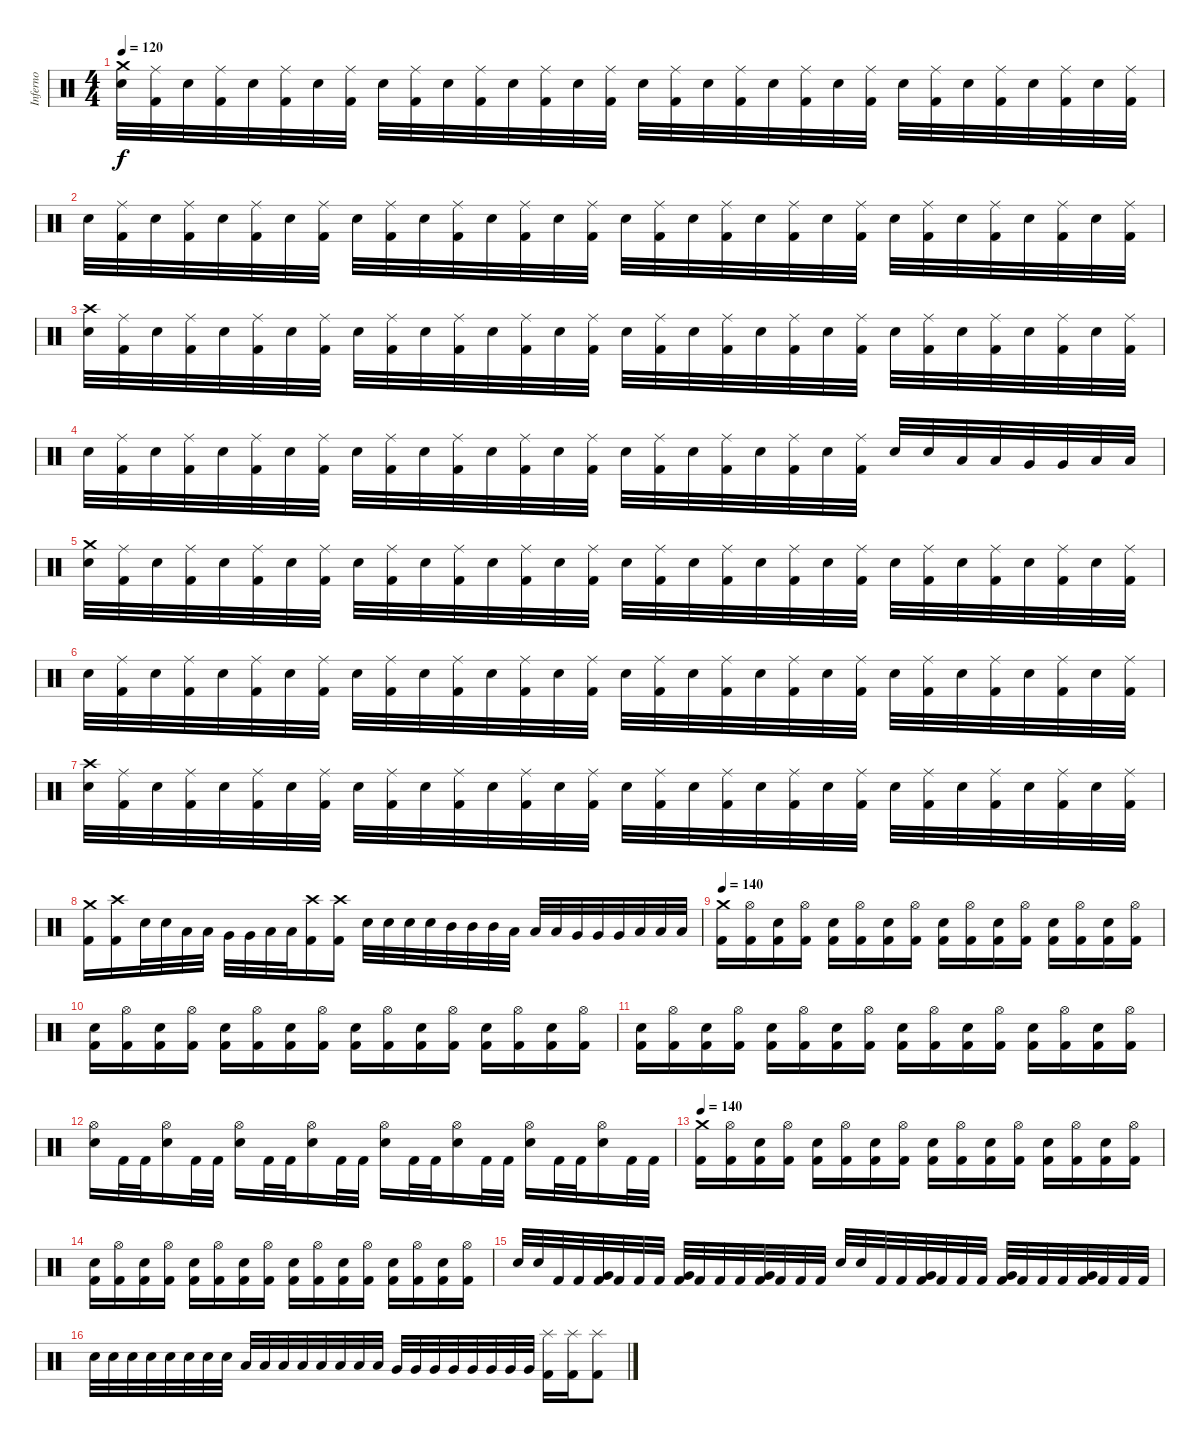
\track ("Inferno" "Inferno") {instrument percussion}
\staff {score}
\articulation defaults
\ts (4 4)
\tempo 120
\clef neutral
\ks c
("Crash medium (hit)" "Electric Snare (hit)").32{dy f} ("Ride (middle)" "Kick (hit) 2").32 "Electric Snare (hit)".32 ("Ride (middle)" "Kick (hit) 2").32 "Electric Snare (hit)".32 ("Ride (middle)" "Kick (hit) 2").32 "Electric Snare (hit)".32 ("Ride (middle)" "Kick (hit) 2").32 "Electric Snare (hit)".32 ("Ride (middle)" "Kick (hit) 2").32 "Electric Snare (hit)".32 ("Ride (middle)" "Kick (hit) 2").32 "Electric Snare (hit)".32 ("Ride (middle)" "Kick (hit) 2").32 "Electric Snare (hit)".32 ("Ride (middle)" "Kick (hit) 2").32 "Electric Snare (hit)".32 ("Ride (middle)" "Kick (hit) 2").32 "Electric Snare (hit)".32 ("Ride (middle)" "Kick (hit) 2").32 "Electric Snare (hit)".32 ("Ride (middle)" "Kick (hit) 2").32 "Electric Snare (hit)".32 ("Ride (middle)" "Kick (hit) 2").32 "Electric Snare (hit)".32 ("Ride (middle)" "Kick (hit) 2").32 "Electric Snare (hit)".32 ("Ride (middle)" "Kick (hit) 2").32 "Electric Snare (hit)".32 ("Ride (middle)" "Kick (hit) 2").32 "Electric Snare (hit)".32 ("Ride (middle)" "Kick (hit) 2").32 |
"Electric Snare (hit)".32 ("Ride (middle)" "Kick (hit) 2").32 "Electric Snare (hit)".32 ("Ride (middle)" "Kick (hit) 2").32 "Electric Snare (hit)".32 ("Ride (middle)" "Kick (hit) 2").32 "Electric Snare (hit)".32 ("Ride (middle)" "Kick (hit) 2").32 "Electric Snare (hit)".32 ("Ride (middle)" "Kick (hit) 2").32 "Electric Snare (hit)".32 ("Ride (middle)" "Kick (hit) 2").32 "Electric Snare (hit)".32 ("Ride (middle)" "Kick (hit) 2").32 "Electric Snare (hit)".32 ("Ride (middle)" "Kick (hit) 2").32 "Electric Snare (hit)".32 ("Ride (middle)" "Kick (hit) 2").32 "Electric Snare (hit)".32 ("Ride (middle)" "Kick (hit) 2").32 "Electric Snare (hit)".32 ("Ride (middle)" "Kick (hit) 2").32 "Electric Snare (hit)".32 ("Ride (middle)" "Kick (hit) 2").32 "Electric Snare (hit)".32 ("Ride (middle)" "Kick (hit) 2").32 "Electric Snare (hit)".32 ("Ride (middle)" "Kick (hit) 2").32 "Electric Snare (hit)".32 ("Ride (middle)" "Kick (hit) 2").32 "Electric Snare (hit)".32 ("Ride (middle)" "Kick (hit) 2").32 |
("Crash high (hit)" "Electric Snare (hit)").32 ("Ride (middle)" "Kick (hit) 2").32 "Electric Snare (hit)".32 ("Ride (middle)" "Kick (hit) 2").32 "Electric Snare (hit)".32 ("Ride (middle)" "Kick (hit) 2").32 "Electric Snare (hit)".32 ("Ride (middle)" "Kick (hit) 2").32 "Electric Snare (hit)".32 ("Ride (middle)" "Kick (hit) 2").32 "Electric Snare (hit)".32 ("Ride (middle)" "Kick (hit) 2").32 "Electric Snare (hit)".32 ("Ride (middle)" "Kick (hit) 2").32 "Electric Snare (hit)".32 ("Ride (middle)" "Kick (hit) 2").32 "Electric Snare (hit)".32 ("Ride (middle)" "Kick (hit) 2").32 "Electric Snare (hit)".32 ("Ride (middle)" "Kick (hit) 2").32 "Electric Snare (hit)".32 ("Ride (middle)" "Kick (hit) 2").32 "Electric Snare (hit)".32 ("Ride (middle)" "Kick (hit) 2").32 "Electric Snare (hit)".32 ("Ride (middle)" "Kick (hit) 2").32 "Electric Snare (hit)".32 ("Ride (middle)" "Kick (hit) 2").32 "Electric Snare (hit)".32 ("Ride (middle)" "Kick (hit) 2").32 "Electric Snare (hit)".32 ("Ride (middle)" "Kick (hit) 2").32 |
"Electric Snare (hit)".32 ("Ride (middle)" "Kick (hit) 2").32 "Electric Snare (hit)".32 ("Ride (middle)" "Kick (hit) 2").32 "Electric Snare (hit)".32 ("Ride (middle)" "Kick (hit) 2").32 "Electric Snare (hit)".32 ("Ride (middle)" "Kick (hit) 2").32 "Electric Snare (hit)".32 ("Ride (middle)" "Kick (hit) 2").32 "Electric Snare (hit)".32 ("Ride (middle)" "Kick (hit) 2").32 "Electric Snare (hit)".32 ("Ride (middle)" "Kick (hit) 2").32 "Electric Snare (hit)".32 ("Ride (middle)" "Kick (hit) 2").32 "Electric Snare (hit)".32 ("Ride (middle)" "Kick (hit) 2").32 "Electric Snare (hit)".32 ("Ride (middle)" "Kick (hit) 2").32 "Electric Snare (hit)".32 ("Ride (middle)" "Kick (hit) 2").32 "Electric Snare (hit)".32 ("Ride (middle)" "Kick (hit) 2").32 "Electric Snare (hit)".32 "Electric Snare (hit)".32 "Low Tom (hit)".32 "Low Tom (hit)".32 "Very Low Tom (hit)".32 "Very Low Tom (hit)".32 "Low Floor Tom (hit)".32 "Low Floor Tom (hit)".32 |
("Crash medium (hit)" "Electric Snare (hit)").32 ("Ride (middle)" "Kick (hit) 2").32 "Electric Snare (hit)".32 ("Ride (middle)" "Kick (hit) 2").32 "Electric Snare (hit)".32 ("Ride (middle)" "Kick (hit) 2").32 "Electric Snare (hit)".32 ("Ride (middle)" "Kick (hit) 2").32 "Electric Snare (hit)".32 ("Ride (middle)" "Kick (hit) 2").32 "Electric Snare (hit)".32 ("Ride (middle)" "Kick (hit) 2").32 "Electric Snare (hit)".32 ("Ride (middle)" "Kick (hit) 2").32 "Electric Snare (hit)".32 ("Ride (middle)" "Kick (hit) 2").32 "Electric Snare (hit)".32 ("Ride (middle)" "Kick (hit) 2").32 "Electric Snare (hit)".32 ("Ride (middle)" "Kick (hit) 2").32 "Electric Snare (hit)".32 ("Ride (middle)" "Kick (hit) 2").32 "Electric Snare (hit)".32 ("Ride (middle)" "Kick (hit) 2").32 "Electric Snare (hit)".32 ("Ride (middle)" "Kick (hit) 2").32 "Electric Snare (hit)".32 ("Ride (middle)" "Kick (hit) 2").32 "Electric Snare (hit)".32 ("Ride (middle)" "Kick (hit) 2").32 "Electric Snare (hit)".32 ("Ride (middle)" "Kick (hit) 2").32 |
"Electric Snare (hit)".32 ("Ride (middle)" "Kick (hit) 2").32 "Electric Snare (hit)".32 ("Ride (middle)" "Kick (hit) 2").32 "Electric Snare (hit)".32 ("Ride (middle)" "Kick (hit) 2").32 "Electric Snare (hit)".32 ("Ride (middle)" "Kick (hit) 2").32 "Electric Snare (hit)".32 ("Ride (middle)" "Kick (hit) 2").32 "Electric Snare (hit)".32 ("Ride (middle)" "Kick (hit) 2").32 "Electric Snare (hit)".32 ("Ride (middle)" "Kick (hit) 2").32 "Electric Snare (hit)".32 ("Ride (middle)" "Kick (hit) 2").32 "Electric Snare (hit)".32 ("Ride (middle)" "Kick (hit) 2").32 "Electric Snare (hit)".32 ("Ride (middle)" "Kick (hit) 2").32 "Electric Snare (hit)".32 ("Ride (middle)" "Kick (hit) 2").32 "Electric Snare (hit)".32 ("Ride (middle)" "Kick (hit) 2").32 "Electric Snare (hit)".32 ("Ride (middle)" "Kick (hit) 2").32 "Electric Snare (hit)".32 ("Ride (middle)" "Kick (hit) 2").32 "Electric Snare (hit)".32 ("Ride (middle)" "Kick (hit) 2").32 "Electric Snare (hit)".32 ("Ride (middle)" "Kick (hit) 2").32 |
("Crash high (hit)" "Electric Snare (hit)").32 ("Ride (middle)" "Kick (hit) 2").32 "Electric Snare (hit)".32 ("Ride (middle)" "Kick (hit) 2").32 "Electric Snare (hit)".32 ("Ride (middle)" "Kick (hit) 2").32 "Electric Snare (hit)".32 ("Ride (middle)" "Kick (hit) 2").32 "Electric Snare (hit)".32 ("Ride (middle)" "Kick (hit) 2").32 "Electric Snare (hit)".32 ("Ride (middle)" "Kick (hit) 2").32 "Electric Snare (hit)".32 ("Ride (middle)" "Kick (hit) 2").32 "Electric Snare (hit)".32 ("Ride (middle)" "Kick (hit) 2").32 "Electric Snare (hit)".32 ("Ride (middle)" "Kick (hit) 2").32 "Electric Snare (hit)".32 ("Ride (middle)" "Kick (hit) 2").32 "Electric Snare (hit)".32 ("Ride (middle)" "Kick (hit) 2").32 "Electric Snare (hit)".32 ("Ride (middle)" "Kick (hit) 2").32 "Electric Snare (hit)".32 ("Ride (middle)" "Kick (hit) 2").32 "Electric Snare (hit)".32 ("Ride (middle)" "Kick (hit) 2").32 "Electric Snare (hit)".32 ("Ride (middle)" "Kick (hit) 2").32 "Electric Snare (hit)".32 ("Ride (middle)" "Kick (hit) 2").32 |
("Crash medium (hit)" "Kick (hit) 2").16 ("Crash high (hit)" "Kick (hit) 2").16 "Electric Snare (hit)".32 "Electric Snare (hit)".32 "Low Tom (hit)".32 "Low Tom (hit)".32 "Very Low Tom (hit)".32 "Very Low Tom (hit)".32 "Low Floor Tom (hit)".32 "Low Floor Tom (hit)".32 ("Crash high (hit)" "Kick (hit) 2").16 ("Crash high (hit)" "Kick (hit) 2").16 "Electric Snare (hit)".32 "Electric Snare (hit)".32 "Electric Snare (hit)".32 "Electric Snare (hit)".32 "Mid Tom (hit)".32 "Mid Tom (hit)".32 "Mid Tom (hit)".32 "Low Tom (hit)".32 "Low Tom (hit)".32 "Low Tom (hit)".32 "Very Low Tom (hit)".32 "Very Low Tom (hit)".32 "Very Low Tom (hit)".32 "Low Floor Tom (hit)".32 "Low Floor Tom (hit)".32 "Low Floor Tom (hit)".32 |
\tempo 140
("Crash medium (hit)" "Kick (hit) 2").16 ("Hi-Hat (open)" "Kick (hit) 2").16 ("Electric Snare (hit)" "Kick (hit) 2").16 ("Hi-Hat (open)" "Kick (hit) 2").16 ("Electric Snare (hit)" "Kick (hit) 2").16 ("Hi-Hat (open)" "Kick (hit) 2").16 ("Electric Snare (hit)" "Kick (hit) 2").16 ("Hi-Hat (open)" "Kick (hit) 2").16 ("Electric Snare (hit)" "Kick (hit) 2").16 ("Hi-Hat (open)" "Kick (hit) 2").16 ("Electric Snare (hit)" "Kick (hit) 2").16 ("Hi-Hat (open)" "Kick (hit) 2").16 ("Electric Snare (hit)" "Kick (hit) 2").16 ("Hi-Hat (open)" "Kick (hit) 2").16 ("Electric Snare (hit)" "Kick (hit) 2").16 ("Hi-Hat (open)" "Kick (hit) 2").16 |
("Electric Snare (hit)" "Kick (hit) 2").16 ("Hi-Hat (open)" "Kick (hit) 2").16 ("Electric Snare (hit)" "Kick (hit) 2").16 ("Hi-Hat (open)" "Kick (hit) 2").16 ("Electric Snare (hit)" "Kick (hit) 2").16 ("Hi-Hat (open)" "Kick (hit) 2").16 ("Electric Snare (hit)" "Kick (hit) 2").16 ("Hi-Hat (open)" "Kick (hit) 2").16 ("Electric Snare (hit)" "Kick (hit) 2").16 ("Hi-Hat (open)" "Kick (hit) 2").16 ("Electric Snare (hit)" "Kick (hit) 2").16 ("Hi-Hat (open)" "Kick (hit) 2").16 ("Electric Snare (hit)" "Kick (hit) 2").16 ("Hi-Hat (open)" "Kick (hit) 2").16 ("Electric Snare (hit)" "Kick (hit) 2").16 ("Hi-Hat (open)" "Kick (hit) 2").16 |
("Electric Snare (hit)" "Kick (hit) 2").16 ("Hi-Hat (open)" "Kick (hit) 2").16 ("Electric Snare (hit)" "Kick (hit) 2").16 ("Hi-Hat (open)" "Kick (hit) 2").16 ("Electric Snare (hit)" "Kick (hit) 2").16 ("Hi-Hat (open)" "Kick (hit) 2").16 ("Electric Snare (hit)" "Kick (hit) 2").16 ("Hi-Hat (open)" "Kick (hit) 2").16 ("Electric Snare (hit)" "Kick (hit) 2").16 ("Hi-Hat (open)" "Kick (hit) 2").16 ("Electric Snare (hit)" "Kick (hit) 2").16 ("Hi-Hat (open)" "Kick (hit) 2").16 ("Electric Snare (hit)" "Kick (hit) 2").16 ("Hi-Hat (open)" "Kick (hit) 2").16 ("Electric Snare (hit)" "Kick (hit) 2").16 ("Hi-Hat (open)" "Kick (hit) 2").16 |
("Hi-Hat (open)" "Electric Snare (hit)").16 "Kick (hit) 2".32 "Kick (hit) 2".32 ("Hi-Hat (open)" "Electric Snare (hit)").16 "Kick (hit) 2".32 "Kick (hit) 2".32 ("Hi-Hat (open)" "Electric Snare (hit)").16 "Kick (hit) 2".32 "Kick (hit) 2".32 ("Hi-Hat (open)" "Electric Snare (hit)").16 "Kick (hit) 2".32 "Kick (hit) 2".32 ("Hi-Hat (open)" "Electric Snare (hit)").16 "Kick (hit) 2".32 "Kick (hit) 2".32 ("Hi-Hat (open)" "Electric Snare (hit)").16 "Kick (hit) 2".32 "Kick (hit) 2".32 ("Hi-Hat (open)" "Electric Snare (hit)").16 "Kick (hit) 2".32 "Kick (hit) 2".32 ("Hi-Hat (open)" "Electric Snare (hit)").16 "Kick (hit) 2".32 "Kick (hit) 2".32 |
\tempo 140
("Crash medium (hit)" "Kick (hit) 2").16 ("Hi-Hat (open)" "Kick (hit) 2").16 ("Electric Snare (hit)" "Kick (hit) 2").16 ("Hi-Hat (open)" "Kick (hit) 2").16 ("Electric Snare (hit)" "Kick (hit) 2").16 ("Hi-Hat (open)" "Kick (hit) 2").16 ("Electric Snare (hit)" "Kick (hit) 2").16 ("Hi-Hat (open)" "Kick (hit) 2").16 ("Electric Snare (hit)" "Kick (hit) 2").16 ("Hi-Hat (open)" "Kick (hit) 2").16 ("Electric Snare (hit)" "Kick (hit) 2").16 ("Hi-Hat (open)" "Kick (hit) 2").16 ("Electric Snare (hit)" "Kick (hit) 2").16 ("Hi-Hat (open)" "Kick (hit) 2").16 ("Electric Snare (hit)" "Kick (hit) 2").16 ("Hi-Hat (open)" "Kick (hit) 2").16 |
("Electric Snare (hit)" "Kick (hit) 2").16 ("Hi-Hat (open)" "Kick (hit) 2").16 ("Electric Snare (hit)" "Kick (hit) 2").16 ("Hi-Hat (open)" "Kick (hit) 2").16 ("Electric Snare (hit)" "Kick (hit) 2").16 ("Hi-Hat (open)" "Kick (hit) 2").16 ("Electric Snare (hit)" "Kick (hit) 2").16 ("Hi-Hat (open)" "Kick (hit) 2").16 ("Electric Snare (hit)" "Kick (hit) 2").16 ("Hi-Hat (open)" "Kick (hit) 2").16 ("Electric Snare (hit)" "Kick (hit) 2").16 ("Hi-Hat (open)" "Kick (hit) 2").16 ("Electric Snare (hit)" "Kick (hit) 2").16 ("Hi-Hat (open)" "Kick (hit) 2").16 ("Electric Snare (hit)" "Kick (hit) 2").16 ("Hi-Hat (open)" "Kick (hit) 2").16 |
"Electric Snare (hit)".32 "Electric Snare (hit)".32 "Kick (hit) 2".32 "Kick (hit) 2".32 ("Very Low Tom (hit)" "Kick (hit) 2").32 "Kick (hit) 2".32 "Kick (hit) 2".32 "Kick (hit) 2".32 ("Very Low Tom (hit)" "Kick (hit) 2").32 "Kick (hit) 2".32 "Kick (hit) 2".32 "Kick (hit) 2".32 ("Very Low Tom (hit)" "Kick (hit) 2").32 "Kick (hit) 2".32 "Kick (hit) 2".32 "Kick (hit) 2".32 "Electric Snare (hit)".32 "Electric Snare (hit)".32 "Kick (hit) 2".32 "Kick (hit) 2".32 ("Very Low Tom (hit)" "Kick (hit) 2").32 "Kick (hit) 2".32 "Kick (hit) 2".32 "Kick (hit) 2".32 ("Very Low Tom (hit)" "Kick (hit) 2").32 "Kick (hit) 2".32 "Kick (hit) 2".32 "Kick (hit) 2".32 ("Very Low Tom (hit)" "Kick (hit) 2").32 "Kick (hit) 2".32 "Kick (hit) 2".32 "Kick (hit) 2".32 |
"Electric Snare (hit)".32 "Electric Snare (hit)".32 "Electric Snare (hit)".32 "Electric Snare (hit)".32 "Electric Snare (hit)".32 "Electric Snare (hit)".32 "Electric Snare (hit)".32 "Electric Snare (hit)".32 "Low Tom (hit)".32 "Low Tom (hit)".32 "Low Tom (hit)".32 "Low Tom (hit)".32 "Low Tom (hit)".32 "Low Tom (hit)".32 "Low Tom (hit)".32 "Low Tom (hit)".32 "Very Low Tom (hit)".32 "Very Low Tom (hit)".32 "Very Low Tom (hit)".32 "Very Low Tom (hit)".32 "Very Low Tom (hit)".32 "Very Low Tom (hit)".32 "Very Low Tom (hit)".32 "Very Low Tom (hit)".32 ("Splash (hit)" "Kick (hit) 2").16 ("Splash (hit)" "Kick (hit) 2").16 ("Splash (hit)" "Kick (hit) 2").8
